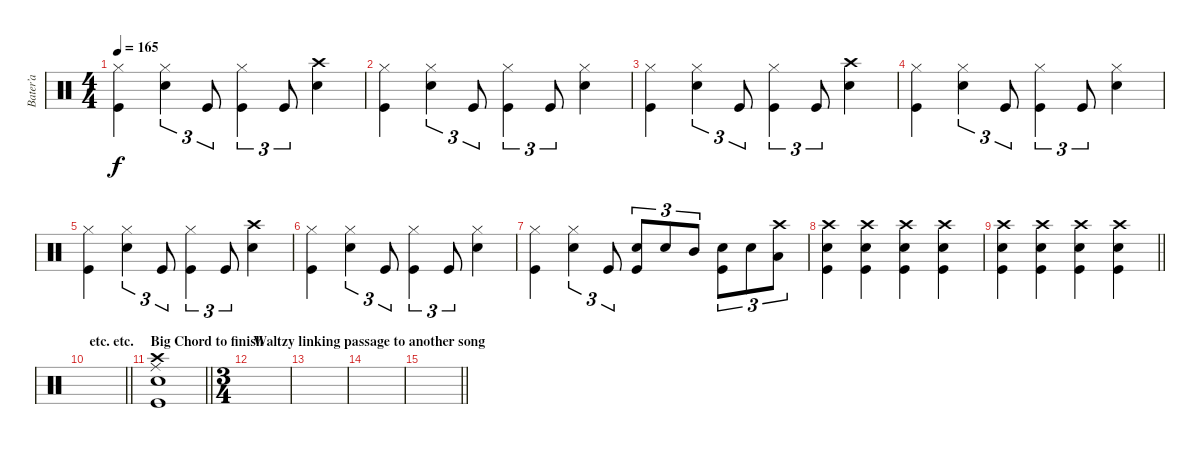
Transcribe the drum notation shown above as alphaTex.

\track ("Bater’a" "Bater’a") {instrument percussion}
\staff {score}
\articulation defaults
\ts (4 4)
\tempo 165
\clef neutral
\ks c
("Hi-Hat (closed)" "Kick (hit)").4{dy f} ("Hi-Hat (closed)" "Snare (hit) 2").4{tu (3 2)} "Kick (hit)".8{tu (3 2)} ("Hi-Hat (closed)" "Kick (hit)").4{tu (3 2)} "Kick (hit)".8{tu (3 2)} ("Crash high (hit)" "Snare (hit) 2").4 |
("Hi-Hat (closed)" "Kick (hit)").4 ("Hi-Hat (closed)" "Snare (hit) 2").4{tu (3 2)} "Kick (hit)".8{tu (3 2)} ("Hi-Hat (closed)" "Kick (hit)").4{tu (3 2)} "Kick (hit)".8{tu (3 2)} ("Hi-Hat (closed)" "Snare (hit) 2").4 |
("Hi-Hat (closed)" "Kick (hit)").4 ("Hi-Hat (closed)" "Snare (hit) 2").4{tu (3 2)} "Kick (hit)".8{tu (3 2)} ("Hi-Hat (closed)" "Kick (hit)").4{tu (3 2)} "Kick (hit)".8{tu (3 2)} ("Crash high (hit)" "Snare (hit) 2").4 |
("Hi-Hat (closed)" "Kick (hit)").4 ("Hi-Hat (closed)" "Snare (hit) 2").4{tu (3 2)} "Kick (hit)".8{tu (3 2)} ("Hi-Hat (closed)" "Kick (hit)").4{tu (3 2)} "Kick (hit)".8{tu (3 2)} ("Hi-Hat (closed)" "Snare (hit) 2").4 |
("Hi-Hat (closed)" "Kick (hit)").4 ("Hi-Hat (closed)" "Snare (hit) 2").4{tu (3 2)} "Kick (hit)".8{tu (3 2)} ("Hi-Hat (closed)" "Kick (hit)").4{tu (3 2)} "Kick (hit)".8{tu (3 2)} ("Crash high (hit)" "Snare (hit) 2").4 |
("Hi-Hat (closed)" "Kick (hit)").4 ("Hi-Hat (closed)" "Snare (hit) 2").4{tu (3 2)} "Kick (hit)".8{tu (3 2)} ("Hi-Hat (closed)" "Kick (hit)").4{tu (3 2)} "Kick (hit)".8{tu (3 2)} ("Hi-Hat (closed)" "Snare (hit) 2").4 |
("Hi-Hat (closed)" "Kick (hit)").4 ("Hi-Hat (closed)" "Snare (hit) 2").4{tu (3 2)} "Kick (hit)".8{tu (3 2)} ("Snare (hit) 2" "Kick (hit)").8{tu (3 2)} "Snare (hit) 2".8{tu (3 2)} "Mid Tom (hit)".8{tu (3 2)} ("Snare (hit) 2" "Kick (hit)").8{tu (3 2)} "Snare (hit) 2".8{tu (3 2)} ("Crash high (hit)" "Low Tom (hit)").8{tu (3 2)} |
("Crash high (hit)" "Kick (hit)" "Snare (hit) 2").4 ("Crash high (hit)" "Kick (hit)" "Snare (hit) 2").4 ("Crash high (hit)" "Kick (hit)" "Snare (hit) 2").4 ("Crash high (hit)" "Kick (hit)" "Snare (hit) 2").4 |
\barLineRight lightlight
("Crash high (hit)" "Kick (hit)" "Snare (hit) 2").4 ("Crash high (hit)" "Kick (hit)" "Snare (hit) 2").4 ("Crash high (hit)" "Kick (hit)" "Snare (hit) 2").4 ("Crash high (hit)" "Kick (hit)" "Snare (hit) 2").4 |
\section ("" "etc. etc.")
\barLineRight lightlight
|
\section ("" "Big Chord to finish")
\barLineRight lightlight
("Kick (hit)" "Crash high (hit)" "Ride (middle)" "Snare (hit) 2").1 |
\ts (3 4)
\section ("" "Waltzy linking passage to another song")
|
|
|
\barLineRight lightlight
